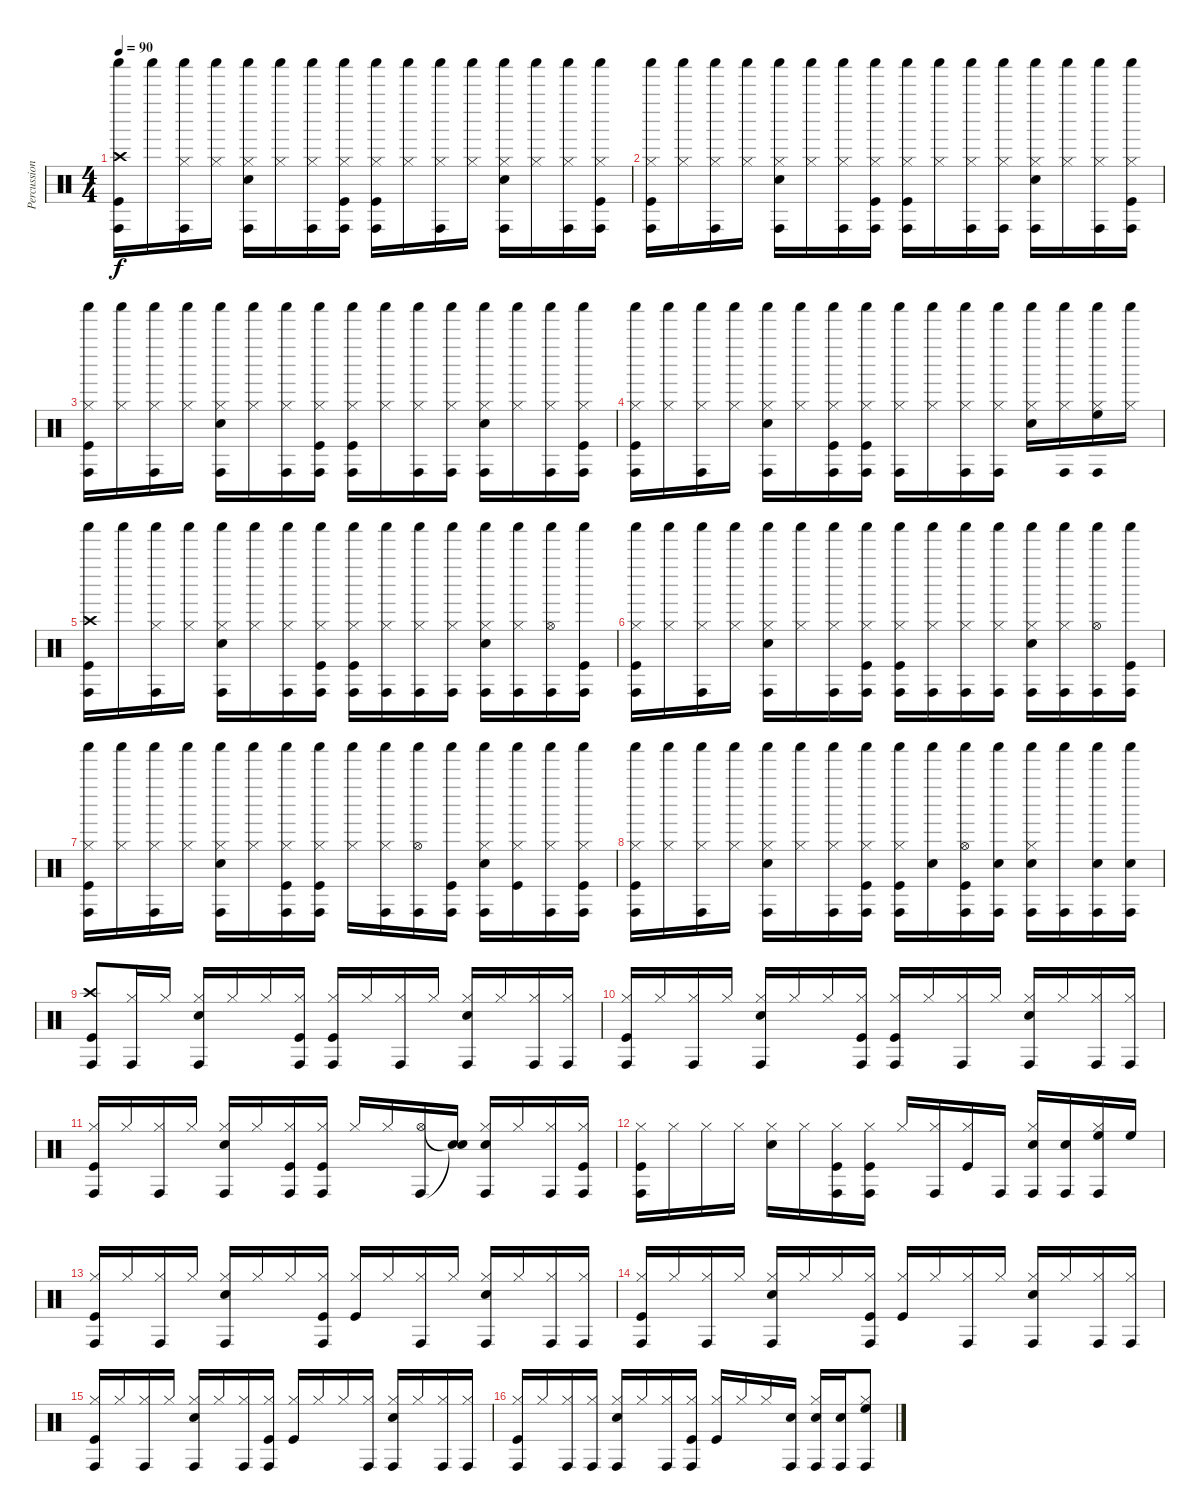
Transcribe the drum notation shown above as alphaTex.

\track ("Percussions" "Percussion") {instrument percussion}
\staff {score}
\articulation defaults
\ts (4 4)
\tempo 90
\clef neutral
\ks c
("Crash high (hit)" "Kick (hit)" "Shaker (hit)" "Conga high (hit)").16{dy f} "Shaker (hit)".16 ("Hi-Hat (closed)" "Shaker (hit)" "Conga high (hit)").16 ("Hi-Hat (closed)" "Shaker (hit)").16 ("Hi-Hat (closed)" "Electric Snare (hit)" "Shaker (hit)" "Conga high (hit)").16 ("Hi-Hat (closed)" "Shaker (hit)").16 ("Hi-Hat (closed)" "Shaker (hit)" "Conga high (hit)").16 ("Hi-Hat (closed)" "Kick (hit)" "Shaker (hit)" "Conga high (hit)").16 ("Hi-Hat (closed)" "Kick (hit)" "Shaker (hit)" "Conga high (hit)").16 ("Hi-Hat (closed)" "Shaker (hit)").16 ("Hi-Hat (closed)" "Shaker (hit)" "Conga high (hit)").16 ("Hi-Hat (closed)" "Shaker (hit)").16 ("Hi-Hat (closed)" "Electric Snare (hit)" "Shaker (hit)" "Conga high (hit)").16 ("Hi-Hat (closed)" "Shaker (hit)").16 ("Hi-Hat (closed)" "Shaker (hit)" "Conga high (hit)").16 ("Hi-Hat (closed)" "Kick (hit)" "Shaker (hit)" "Conga high (hit)").16 |
("Hi-Hat (closed)" "Kick (hit)" "Shaker (hit)" "Conga high (hit)").16 ("Hi-Hat (closed)" "Shaker (hit)").16 ("Hi-Hat (closed)" "Shaker (hit)" "Conga high (hit)").16 ("Hi-Hat (closed)" "Shaker (hit)").16 ("Hi-Hat (closed)" "Electric Snare (hit)" "Shaker (hit)" "Conga high (hit)").16 ("Hi-Hat (closed)" "Shaker (hit)").16 ("Hi-Hat (closed)" "Shaker (hit)" "Conga high (hit)").16 ("Hi-Hat (closed)" "Kick (hit)" "Shaker (hit)" "Conga high (hit)").16 ("Hi-Hat (closed)" "Kick (hit)" "Shaker (hit)" "Conga high (hit)").16 ("Hi-Hat (closed)" "Shaker (hit)").16 ("Hi-Hat (closed)" "Shaker (hit)" "Conga high (hit)").16 ("Hi-Hat (closed)" "Shaker (hit)" "Conga high (hit)").16 ("Hi-Hat (closed)" "Electric Snare (hit)" "Shaker (hit)" "Conga high (hit)").16 ("Hi-Hat (closed)" "Shaker (hit)").16 ("Hi-Hat (closed)" "Shaker (hit)" "Conga high (hit)").16 ("Hi-Hat (closed)" "Kick (hit)" "Shaker (hit)" "Conga high (hit)").16 |
("Hi-Hat (closed)" "Kick (hit)" "Shaker (hit)" "Conga high (hit)").16 ("Hi-Hat (closed)" "Shaker (hit)").16 ("Hi-Hat (closed)" "Shaker (hit)" "Conga high (hit)").16 ("Hi-Hat (closed)" "Shaker (hit)").16 ("Hi-Hat (closed)" "Electric Snare (hit)" "Shaker (hit)" "Conga high (hit)").16 ("Hi-Hat (closed)" "Shaker (hit)").16 ("Hi-Hat (closed)" "Shaker (hit)" "Conga high (hit)").16 ("Hi-Hat (closed)" "Kick (hit)" "Shaker (hit)" "Conga high (hit)").16 ("Hi-Hat (closed)" "Kick (hit)" "Shaker (hit)" "Conga high (hit)").16 ("Hi-Hat (closed)" "Shaker (hit)").16 ("Hi-Hat (closed)" "Shaker (hit)" "Conga high (hit)").16 ("Hi-Hat (closed)" "Shaker (hit)" "Conga high (hit)").16 ("Hi-Hat (closed)" "Electric Snare (hit)" "Shaker (hit)" "Conga high (hit)").16 ("Hi-Hat (closed)" "Shaker (hit)").16 ("Hi-Hat (closed)" "Shaker (hit)" "Conga high (hit)").16 ("Hi-Hat (closed)" "Kick (hit)" "Shaker (hit)" "Conga high (hit)").16 |
("Hi-Hat (closed)" "Kick (hit)" "Shaker (hit)" "Conga high (hit)").16 ("Hi-Hat (closed)" "Shaker (hit)").16 ("Hi-Hat (closed)" "Shaker (hit)" "Conga high (hit)").16 ("Hi-Hat (closed)" "Shaker (hit)").16 ("Hi-Hat (closed)" "Electric Snare (hit)" "Shaker (hit)" "Conga high (hit)").16 ("Hi-Hat (closed)" "Shaker (hit)").16 ("Hi-Hat (closed)" "Kick (hit)" "Shaker (hit)" "Conga high (hit)").16 ("Hi-Hat (closed)" "Kick (hit)" "Shaker (hit)" "Conga high (hit)").16 ("Hi-Hat (closed)" "Shaker (hit)" "Conga high (hit)").16 ("Hi-Hat (closed)" "Shaker (hit)").16 ("Hi-Hat (closed)" "Shaker (hit)" "Conga high (hit)").16 ("Hi-Hat (closed)" "Shaker (hit)" "Conga high (hit)").16 ("Hi-Hat (closed)" "Electric Snare (hit)" "Shaker (hit)").16 ("Hi-Hat (closed)" "Shaker (hit)" "Conga high (hit)").16 ("Hi-Hat (closed)" "High Floor Tom (hit)" "Shaker (hit)" "Conga high (hit)").16 ("Hi-Hat (closed)" "Shaker (hit)").16 |
("Crash high (hit)" "Kick (hit)" "Shaker (hit)" "Conga high (hit)").16 "Shaker (hit)".16 ("Hi-Hat (closed)" "Shaker (hit)" "Conga high (hit)").16 ("Hi-Hat (closed)" "Shaker (hit)").16 ("Hi-Hat (closed)" "Electric Snare (hit)" "Shaker (hit)" "Conga high (hit)").16 ("Hi-Hat (closed)" "Shaker (hit)").16 ("Hi-Hat (closed)" "Shaker (hit)" "Conga high (hit)").16 ("Hi-Hat (closed)" "Kick (hit)" "Shaker (hit)" "Conga high (hit)").16 ("Hi-Hat (closed)" "Kick (hit)" "Shaker (hit)" "Conga high (hit)").16 ("Hi-Hat (closed)" "Shaker (hit)" "Conga high (hit)").16 ("Hi-Hat (closed)" "Shaker (hit)" "Conga high (hit)").16 ("Hi-Hat (closed)" "Shaker (hit)" "Conga high (hit)").16 ("Hi-Hat (closed)" "Electric Snare (hit)" "Shaker (hit)" "Conga high (hit)").16 ("Hi-Hat (closed)" "Shaker (hit)" "Conga high (hit)").16 ("Hi-Hat (open)" "Shaker (hit)" "Conga high (hit)").16 ("Kick (hit)" "Shaker (hit)" "Conga high (hit)").16 |
("Hi-Hat (closed)" "Kick (hit)" "Shaker (hit)" "Conga high (hit)").16 ("Hi-Hat (closed)" "Shaker (hit)").16 ("Hi-Hat (closed)" "Shaker (hit)" "Conga high (hit)").16 ("Hi-Hat (closed)" "Shaker (hit)").16 ("Hi-Hat (closed)" "Electric Snare (hit)" "Shaker (hit)" "Conga high (hit)").16 ("Hi-Hat (closed)" "Shaker (hit)").16 ("Hi-Hat (closed)" "Shaker (hit)" "Conga high (hit)").16 ("Hi-Hat (closed)" "Kick (hit)" "Shaker (hit)" "Conga high (hit)").16 ("Hi-Hat (closed)" "Kick (hit)" "Shaker (hit)" "Conga high (hit)").16 ("Hi-Hat (closed)" "Shaker (hit)" "Conga high (hit)").16 ("Hi-Hat (closed)" "Shaker (hit)" "Conga high (hit)").16 ("Hi-Hat (closed)" "Shaker (hit)" "Conga high (hit)").16 ("Hi-Hat (closed)" "Electric Snare (hit)" "Shaker (hit)" "Conga high (hit)").16 ("Hi-Hat (closed)" "Shaker (hit)" "Conga high (hit)").16 ("Hi-Hat (open)" "Shaker (hit)" "Conga high (hit)").16 ("Kick (hit)" "Shaker (hit)" "Conga high (hit)").16 |
("Hi-Hat (closed)" "Kick (hit)" "Shaker (hit)" "Conga high (hit)").16 ("Hi-Hat (closed)" "Shaker (hit)").16 ("Hi-Hat (closed)" "Shaker (hit)" "Conga high (hit)").16 ("Hi-Hat (closed)" "Shaker (hit)").16 ("Hi-Hat (closed)" "Electric Snare (hit)" "Shaker (hit)" "Conga high (hit)").16 ("Hi-Hat (closed)" "Shaker (hit)").16 ("Hi-Hat (closed)" "Kick (hit)" "Shaker (hit)" "Conga high (hit)").16 ("Hi-Hat (closed)" "Kick (hit)" "Shaker (hit)" "Conga high (hit)").16 ("Hi-Hat (closed)" "Shaker (hit)").16 ("Hi-Hat (closed)" "Shaker (hit)" "Conga high (hit)").16 ("Hi-Hat (open)" "Shaker (hit)" "Conga high (hit)").16 ("Kick (hit)" "Shaker (hit)" "Conga high (hit)").16 ("Hi-Hat (closed)" "Electric Snare (hit)" "Shaker (hit)" "Conga high (hit)").16 ("Hi-Hat (closed)" "Kick (hit)" "Shaker (hit)").16 ("Hi-Hat (closed)" "Shaker (hit)" "Conga high (hit)").16 ("Hi-Hat (closed)" "Kick (hit)" "Shaker (hit)" "Conga high (hit)").16 |
("Hi-Hat (closed)" "Kick (hit)" "Shaker (hit)" "Conga high (hit)").16 ("Hi-Hat (closed)" "Shaker (hit)").16 ("Hi-Hat (closed)" "Shaker (hit)" "Conga high (hit)").16 ("Hi-Hat (closed)" "Shaker (hit)").16 ("Hi-Hat (closed)" "Electric Snare (hit)" "Shaker (hit)" "Conga high (hit)").16 ("Hi-Hat (closed)" "Shaker (hit)").16 ("Hi-Hat (closed)" "Shaker (hit)" "Conga high (hit)").16 ("Hi-Hat (closed)" "Kick (hit)" "Shaker (hit)" "Conga high (hit)").16 ("Hi-Hat (closed)" "Kick (hit)" "Shaker (hit)" "Conga high (hit)").16 ("Electric Snare (hit)" "Shaker (hit)").16 ("Hi-Hat (open)" "Kick (hit)" "Shaker (hit)" "Conga high (hit)").16 ("Electric Snare (hit)" "Shaker (hit)" "Conga high (hit)").16 ("Hi-Hat (closed)" "Electric Snare (hit)" "Shaker (hit)" "Conga high (hit)").16 ("Shaker (hit)" "Conga high (hit)").16 ("Electric Snare (hit)" "Shaker (hit)" "Conga high (hit)").16 ("Electric Snare (hit)" "Shaker (hit)" "Conga high (hit)").16 |
("Crash high (hit)" "Kick (hit)" "Conga high (hit)").8 ("Hi-Hat (closed)" "Conga high (hit)").16 "Hi-Hat (closed)".16 ("Hi-Hat (closed)" "Electric Snare (hit)" "Conga high (hit)").16 "Hi-Hat (closed)".16 "Hi-Hat (closed)".16 ("Hi-Hat (closed)" "Kick (hit)" "Conga high (hit)").16 ("Hi-Hat (closed)" "Kick (hit)" "Conga high (hit)").16 "Hi-Hat (closed)".16 ("Hi-Hat (closed)" "Conga high (hit)").16 "Hi-Hat (closed)".16 ("Hi-Hat (closed)" "Electric Snare (hit)" "Conga high (hit)").16 "Hi-Hat (closed)".16 ("Hi-Hat (closed)" "Conga high (hit)").16 ("Hi-Hat (closed)" "Conga high (hit)").16 |
("Hi-Hat (closed)" "Kick (hit)" "Conga high (hit)").16 "Hi-Hat (closed)".16 ("Hi-Hat (closed)" "Conga high (hit)").16 "Hi-Hat (closed)".16 ("Hi-Hat (closed)" "Electric Snare (hit)" "Conga high (hit)").16 "Hi-Hat (closed)".16 "Hi-Hat (closed)".16 ("Hi-Hat (closed)" "Kick (hit)" "Conga high (hit)").16 ("Hi-Hat (closed)" "Kick (hit)" "Conga high (hit)").16 "Hi-Hat (closed)".16 ("Hi-Hat (closed)" "Conga high (hit)").16 "Hi-Hat (closed)".16 ("Hi-Hat (closed)" "Electric Snare (hit)" "Conga high (hit)").16 "Hi-Hat (closed)".16 ("Hi-Hat (closed)" "Conga high (hit)").16 ("Hi-Hat (closed)" "Conga high (hit)").16 |
("Hi-Hat (closed)" "Kick (hit)" "Conga high (hit)").16 "Hi-Hat (closed)".16 ("Hi-Hat (closed)" "Conga high (hit)").16 "Hi-Hat (closed)".16 ("Hi-Hat (closed)" "Electric Snare (hit)" "Conga high (hit)").16 "Hi-Hat (closed)".16 ("Hi-Hat (closed)" "Kick (hit)" "Conga high (hit)").16 ("Hi-Hat (closed)" "Kick (hit)" "Conga high (hit)").16 "Hi-Hat (closed)".16 "Hi-Hat (closed)".16 ("Hi-Hat (open)" "Conga high (hit)").16 ("Snare (hit)"{t} "Snare (hit)"{t}).16 ("Hi-Hat (closed)" "Electric Snare (hit)" "Conga high (hit)").16 "Hi-Hat (closed)".16 ("Hi-Hat (closed)" "Conga high (hit)").16 ("Hi-Hat (closed)" "Kick (hit)" "Conga high (hit)").16 |
("Hi-Hat (closed)" "Kick (hit)" "Conga high (hit)").16 "Hi-Hat (closed)".16 "Hi-Hat (closed)".16 "Hi-Hat (closed)".16 ("Hi-Hat (closed)" "Electric Snare (hit)").16 "Hi-Hat (closed)".16 ("Hi-Hat (closed)" "Kick (hit)" "Conga high (hit)").16 ("Hi-Hat (closed)" "Kick (hit)" "Conga high (hit)").16 "Hi-Hat (closed)".16 ("Hi-Hat (closed)" "Conga high (hit)").16 ("Hi-Hat (closed)" "Kick (hit)").16 "Conga high (hit)".16 ("Hi-Hat (closed)" "Electric Snare (hit)" "Conga high (hit)").16 ("Electric Snare (hit)" "Conga high (hit)").16 ("Hi-Hat (closed)" "High Floor Tom (hit)" "Conga high (hit)").16 "High Floor Tom (hit)".16 |
("Hi-Hat (closed)" "Kick (hit)" "Conga high (hit)").16 "Hi-Hat (closed)".16 ("Hi-Hat (closed)" "Conga high (hit)").16 "Hi-Hat (closed)".16 ("Hi-Hat (closed)" "Electric Snare (hit)" "Conga high (hit)").16 "Hi-Hat (closed)".16 "Hi-Hat (closed)".16 ("Hi-Hat (closed)" "Kick (hit)" "Conga high (hit)").16 ("Hi-Hat (closed)" "Kick (hit)").16 "Hi-Hat (closed)".16 ("Hi-Hat (closed)" "Conga high (hit)").16 "Hi-Hat (closed)".16 ("Hi-Hat (closed)" "Electric Snare (hit)" "Conga high (hit)").16 "Hi-Hat (closed)".16 ("Hi-Hat (closed)" "Conga high (hit)").16 ("Hi-Hat (closed)" "Conga high (hit)").16 |
("Hi-Hat (closed)" "Kick (hit)" "Conga high (hit)").16 "Hi-Hat (closed)".16 ("Hi-Hat (closed)" "Conga high (hit)").16 "Hi-Hat (closed)".16 ("Hi-Hat (closed)" "Electric Snare (hit)" "Conga high (hit)").16 "Hi-Hat (closed)".16 "Hi-Hat (closed)".16 ("Hi-Hat (closed)" "Kick (hit)" "Conga high (hit)").16 ("Hi-Hat (closed)" "Kick (hit)").16 "Hi-Hat (closed)".16 ("Hi-Hat (closed)" "Conga high (hit)").16 "Hi-Hat (closed)".16 ("Hi-Hat (closed)" "Electric Snare (hit)" "Conga high (hit)").16 "Hi-Hat (closed)".16 ("Hi-Hat (closed)" "Conga high (hit)").16 ("Hi-Hat (closed)" "Conga high (hit)").16 |
("Hi-Hat (closed)" "Kick (hit)" "Conga high (hit)").16 "Hi-Hat (closed)".16 ("Hi-Hat (closed)" "Conga high (hit)").16 "Hi-Hat (closed)".16 ("Hi-Hat (closed)" "Electric Snare (hit)" "Conga high (hit)").16 "Hi-Hat (closed)".16 ("Hi-Hat (closed)" "Conga high (hit)").16 ("Hi-Hat (closed)" "Kick (hit)" "Conga high (hit)").16 ("Hi-Hat (closed)" "Kick (hit)").16 "Hi-Hat (closed)".16 "Hi-Hat (closed)".16 ("Hi-Hat (closed)" "Conga high (hit)").16 ("Hi-Hat (closed)" "Electric Snare (hit)" "Conga high (hit)").16 "Hi-Hat (closed)".16 ("Hi-Hat (closed)" "Conga high (hit)").16 ("Hi-Hat (closed)" "Conga high (hit)").16 |
("Hi-Hat (closed)" "Kick (hit)" "Conga high (hit)").16 "Hi-Hat (closed)".16 ("Hi-Hat (closed)" "Conga high (hit)").16 ("Hi-Hat (closed)" "Conga high (hit)").16 ("Hi-Hat (closed)" "Electric Snare (hit)" "Conga high (hit)").16 "Hi-Hat (closed)".16 ("Hi-Hat (closed)" "Conga high (hit)").16 ("Hi-Hat (closed)" "Kick (hit)" "Conga high (hit)").16 ("Hi-Hat (closed)" "Kick (hit)").16 "Hi-Hat (closed)".16 "Hi-Hat (closed)".16 ("Electric Snare (hit)" "Conga high (hit)").16 ("Hi-Hat (closed)" "Electric Snare (hit)" "Conga high (hit)").16 ("Electric Snare (hit)" "Conga high (hit)").16 ("Hi-Hat (closed)" "High Floor Tom (hit)" "Conga high (hit)").8
